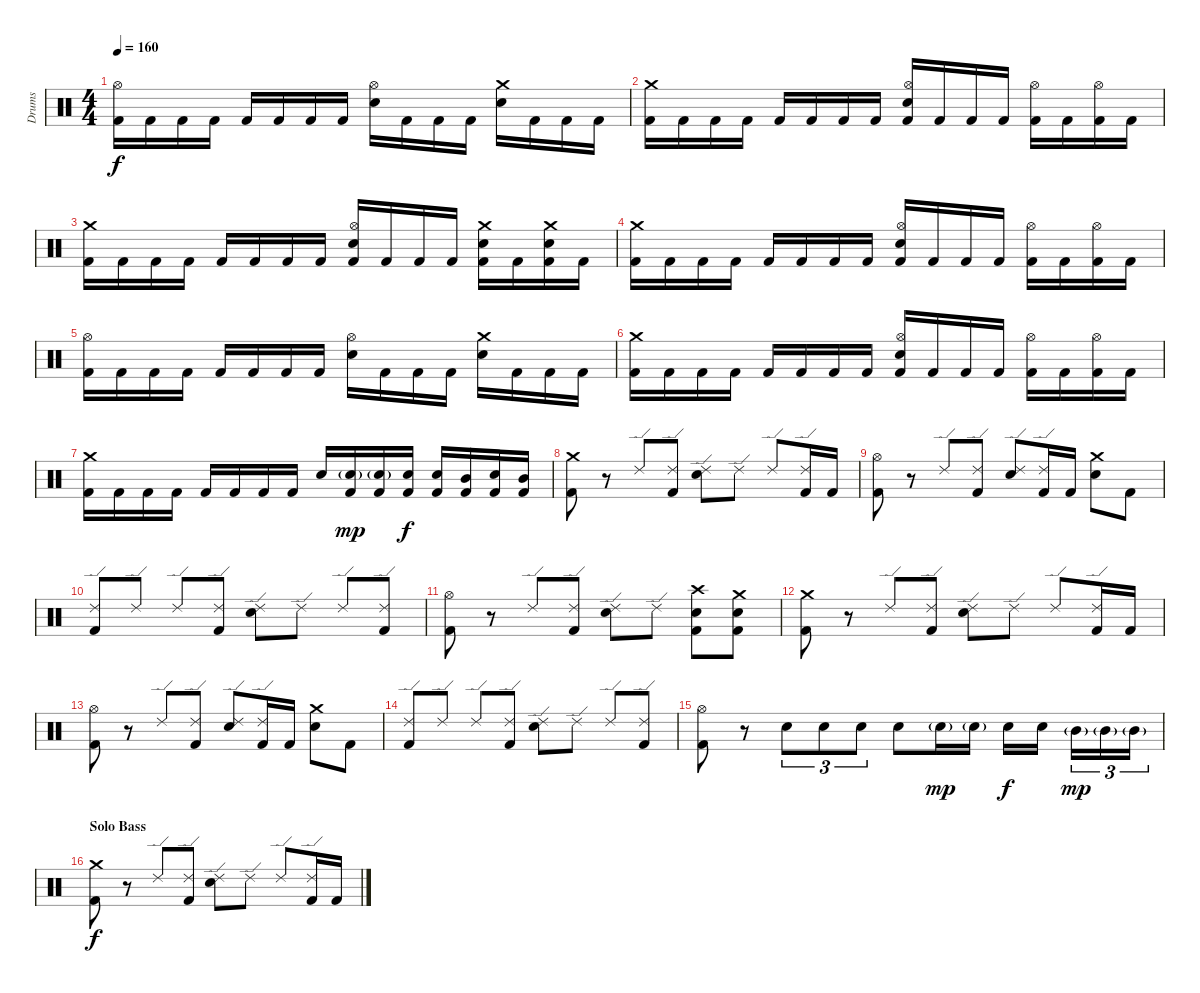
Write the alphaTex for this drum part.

\track ("Drums" "Drums") {instrument percussion}
\staff {score}
\articulation defaults
\ts (4 4)
\tempo 160
\clef neutral
\ks c
("Kick (hit) 2" "Hi-Hat (open)").16{dy f} "Kick (hit) 2".16 "Kick (hit) 2".16 "Kick (hit) 2".16 "Kick (hit) 2".16 "Kick (hit) 2".16 "Kick (hit) 2".16 "Kick (hit) 2".16 ("Electric Snare (hit)" "Hi-Hat (open)").16 "Kick (hit) 2".16 "Kick (hit) 2".16 "Kick (hit) 2".16 ("Electric Snare (hit)" "Crash medium (hit)").16 "Kick (hit) 2".16 "Kick (hit) 2".16 "Kick (hit) 2".16 |
("Kick (hit) 2" "Crash medium (hit)").16 "Kick (hit) 2".16 "Kick (hit) 2".16 "Kick (hit) 2".16 "Kick (hit) 2".16 "Kick (hit) 2".16 "Kick (hit) 2".16 "Kick (hit) 2".16 ("Electric Snare (hit)" "Kick (hit) 2" "Hi-Hat (open)").16 "Kick (hit) 2".16 "Kick (hit) 2".16 "Kick (hit) 2".16 ("Kick (hit) 2" "Hi-Hat (open)").16 "Kick (hit) 2".16 ("Kick (hit) 2" "Hi-Hat (open)").16 "Kick (hit) 2".16 |
("Kick (hit) 2" "Crash medium (hit)").16 "Kick (hit) 2".16 "Kick (hit) 2".16 "Kick (hit) 2".16 "Kick (hit) 2".16 "Kick (hit) 2".16 "Kick (hit) 2".16 "Kick (hit) 2".16 ("Electric Snare (hit)" "Kick (hit) 2" "Hi-Hat (open)").16 "Kick (hit) 2".16 "Kick (hit) 2".16 "Kick (hit) 2".16 ("Kick (hit) 2" "Electric Snare (hit)" "Crash medium (hit)").16 "Kick (hit) 2".16 ("Kick (hit) 2" "Electric Snare (hit)" "Crash medium (hit)").16 "Kick (hit) 2".16 |
("Kick (hit) 2" "Crash medium (hit)").16 "Kick (hit) 2".16 "Kick (hit) 2".16 "Kick (hit) 2".16 "Kick (hit) 2".16 "Kick (hit) 2".16 "Kick (hit) 2".16 "Kick (hit) 2".16 ("Electric Snare (hit)" "Kick (hit) 2" "Hi-Hat (open)").16 "Kick (hit) 2".16 "Kick (hit) 2".16 "Kick (hit) 2".16 ("Kick (hit) 2" "Hi-Hat (open)").16 "Kick (hit) 2".16 ("Kick (hit) 2" "Hi-Hat (open)").16 "Kick (hit) 2".16 |
("Kick (hit) 2" "Hi-Hat (open)").16 "Kick (hit) 2".16 "Kick (hit) 2".16 "Kick (hit) 2".16 "Kick (hit) 2".16 "Kick (hit) 2".16 "Kick (hit) 2".16 "Kick (hit) 2".16 ("Electric Snare (hit)" "Hi-Hat (open)").16 "Kick (hit) 2".16 "Kick (hit) 2".16 "Kick (hit) 2".16 ("Electric Snare (hit)" "Crash medium (hit)").16 "Kick (hit) 2".16 "Kick (hit) 2".16 "Kick (hit) 2".16 |
("Kick (hit) 2" "Crash medium (hit)").16 "Kick (hit) 2".16 "Kick (hit) 2".16 "Kick (hit) 2".16 "Kick (hit) 2".16 "Kick (hit) 2".16 "Kick (hit) 2".16 "Kick (hit) 2".16 ("Electric Snare (hit)" "Kick (hit) 2" "Hi-Hat (open)").16 "Kick (hit) 2".16 "Kick (hit) 2".16 "Kick (hit) 2".16 ("Kick (hit) 2" "Hi-Hat (open)").16 "Kick (hit) 2".16 ("Kick (hit) 2" "Hi-Hat (open)").16 "Kick (hit) 2".16 |
("Kick (hit) 2" "Crash medium (hit)").16 "Kick (hit) 2".16 "Kick (hit) 2".16 "Kick (hit) 2".16 "Kick (hit) 2".16 "Kick (hit) 2".16 "Kick (hit) 2".16 "Kick (hit) 2".16 "Electric Snare (hit)".16 ("Kick (hit) 2" "Electric Snare (hit)"{g}).16{dy mp} ("Kick (hit) 2" "Electric Snare (hit)"{g}).16 ("Kick (hit) 2" "Snare (hit) 2").16{dy f} ("Kick (hit) 2" "Electric Snare (hit)").16 ("Kick (hit) 2" "Mid Tom (hit)").16 ("Kick (hit) 2" "Electric Snare (hit)").16 ("Kick (hit) 2" "Mid Tom (hit)").16 |
("Kick (hit) 2" "Crash medium (hit)").8 r.8 "Ride (edge) 2".8 ("Kick (hit) 2" "Ride (edge) 2").8 ("Electric Snare (hit)" "Ride (edge) 2").8 "Ride (edge) 2".8 "Ride (edge) 2".8 ("Kick (hit) 2" "Ride (edge) 2").16 "Kick (hit) 2".16 |
("Kick (hit) 2" "Hi-Hat (open)").8 r.8 "Ride (edge) 2".8 ("Kick (hit) 2" "Ride (edge) 2").8 ("Electric Snare (hit)" "Ride (edge) 2").8 ("Kick (hit) 2" "Ride (edge) 2").16 "Kick (hit) 2".16 ("Electric Snare (hit)" "Crash medium (hit)").8 "Kick (hit) 2".8 |
("Kick (hit) 2" "Ride (edge) 2").8 "Ride (edge) 2".8 "Ride (edge) 2".8 ("Kick (hit) 2" "Ride (edge) 2").8 ("Electric Snare (hit)" "Ride (edge) 2").8 "Ride (edge) 2".8 "Ride (edge) 2".8 ("Kick (hit) 2" "Ride (edge) 2").8 |
("Kick (hit) 2" "Hi-Hat (open)").8 r.8 "Ride (edge) 2".8 ("Kick (hit) 2" "Ride (edge) 2").8 ("Electric Snare (hit)" "Ride (edge) 2").8 "Ride (edge) 2".8 ("Kick (hit) 2" "Snare (hit) 2" "Crash high (hit)").8 ("Kick (hit) 2" "Electric Snare (hit)" "Crash medium (hit)").8 |
("Kick (hit) 2" "Crash medium (hit)").8 r.8 "Ride (edge) 2".8 ("Kick (hit) 2" "Ride (edge) 2").8 ("Electric Snare (hit)" "Ride (edge) 2").8 "Ride (edge) 2".8 "Ride (edge) 2".8 ("Kick (hit) 2" "Ride (edge) 2").16 "Kick (hit) 2".16 |
("Kick (hit) 2" "Hi-Hat (open)").8 r.8 "Ride (edge) 2".8 ("Kick (hit) 2" "Ride (edge) 2").8 ("Electric Snare (hit)" "Ride (edge) 2").8 ("Kick (hit) 2" "Ride (edge) 2").16 "Kick (hit) 2".16 ("Electric Snare (hit)" "Crash medium (hit)").8 "Kick (hit) 2".8 |
("Kick (hit) 2" "Ride (edge) 2").8 "Ride (edge) 2".8 "Ride (edge) 2".8 ("Kick (hit) 2" "Ride (edge) 2").8 ("Electric Snare (hit)" "Ride (edge) 2").8 "Ride (edge) 2".8 "Ride (edge) 2".8 ("Kick (hit) 2" "Ride (edge) 2").8 |
("Kick (hit) 2" "Hi-Hat (open)").8 r.8 "Snare (hit) 2".8{tu (3 2)} "Snare (hit) 2".8{tu (3 2)} "Snare (hit) 2".8{tu (3 2)} "Electric Snare (hit)".8 "Electric Snare (hit)"{g}.16{dy mp} "Electric Snare (hit)"{g}.16 "Snare (hit) 2".16{dy f} "Snare (hit) 2".16 "Mid Tom (hit)"{g}.16{tu (3 2) dy mp} "Mid Tom (hit)"{g}.16{tu (3 2)} "Mid Tom (hit)"{g}.16{tu (3 2)} |
\section ("" "Solo Bass")
("Kick (hit) 2" "Crash medium (hit)").8{dy f} r.8 "Ride (edge) 2".8 ("Kick (hit) 2" "Ride (edge) 2").8 ("Electric Snare (hit)" "Ride (edge) 2").8 "Ride (edge) 2".8 "Ride (edge) 2".8 ("Kick (hit) 2" "Ride (edge) 2").16 "Kick (hit) 2".16
